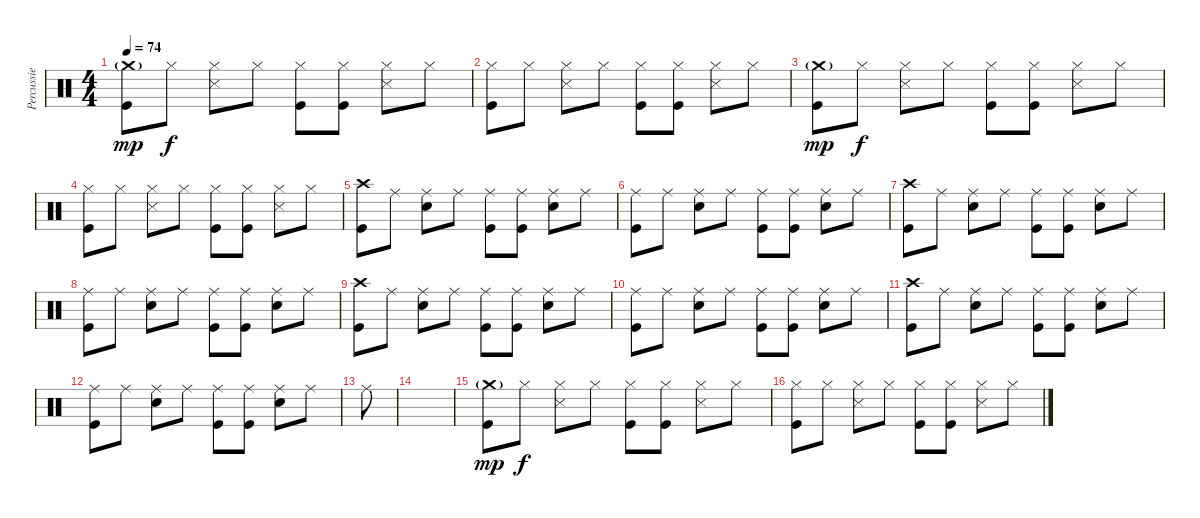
\track ("Percussie" "Percussie") {instrument percussion}
\staff {score}
\articulation defaults
\ts (4 4)
\tempo 74
\clef neutral
\ks c
("Crash medium (hit)"{g} "Kick (hit)").8{dy mp} "Hi-Hat (closed)".8{dy f} ("Hi-Hat (closed)" "Snare (side stick) 3").8 "Hi-Hat (closed)".8 ("Hi-Hat (closed)" "Kick (hit)").8 ("Hi-Hat (closed)" "Kick (hit)").8 ("Hi-Hat (closed)" "Snare (side stick) 3").8 "Hi-Hat (closed)".8 |
("Hi-Hat (closed)" "Kick (hit)").8 "Hi-Hat (closed)".8 ("Hi-Hat (closed)" "Snare (side stick) 3").8 "Hi-Hat (closed)".8 ("Hi-Hat (closed)" "Kick (hit)").8 ("Hi-Hat (closed)" "Kick (hit)").8 ("Hi-Hat (closed)" "Snare (side stick) 3").8 "Hi-Hat (closed)".8 |
("Crash medium (hit)"{g} "Kick (hit)").8{dy mp} "Hi-Hat (closed)".8{dy f} ("Hi-Hat (closed)" "Snare (side stick) 3").8 "Hi-Hat (closed)".8 ("Hi-Hat (closed)" "Kick (hit)").8 ("Hi-Hat (closed)" "Kick (hit)").8 ("Hi-Hat (closed)" "Snare (side stick) 3").8 "Hi-Hat (closed)".8 |
("Hi-Hat (closed)" "Kick (hit)").8 "Hi-Hat (closed)".8 ("Hi-Hat (closed)" "Snare (side stick) 3").8 "Hi-Hat (closed)".8 ("Hi-Hat (closed)" "Kick (hit)").8 ("Hi-Hat (closed)" "Kick (hit)").8 ("Hi-Hat (closed)" "Snare (side stick) 3").8 "Hi-Hat (closed)".8 |
("Crash high (hit)" "Kick (hit)").8 "Ride (middle)".8 ("Ride (middle)" "Snare (hit) 2").8 "Ride (middle)".8 ("Ride (middle)" "Kick (hit)").8 ("Ride (middle)" "Kick (hit)").8 ("Ride (middle)" "Snare (hit) 2").8 "Ride (middle)".8 |
("Ride (middle)" "Kick (hit)").8 "Ride (middle)".8 ("Ride (middle)" "Snare (hit) 2").8 "Ride (middle)".8 ("Ride (middle)" "Kick (hit)").8 ("Ride (middle)" "Kick (hit)").8 ("Ride (middle)" "Snare (hit) 2").8 "Ride (middle)".8 |
("Crash high (hit)" "Kick (hit)").8 "Ride (middle)".8 ("Ride (middle)" "Snare (hit) 2").8 "Ride (middle)".8 ("Ride (middle)" "Kick (hit)").8 ("Ride (middle)" "Kick (hit)").8 ("Ride (middle)" "Snare (hit) 2").8 "Ride (middle)".8 |
("Ride (middle)" "Kick (hit)").8 "Ride (middle)".8 ("Ride (middle)" "Snare (hit) 2").8 "Ride (middle)".8 ("Ride (middle)" "Kick (hit)").8 ("Ride (middle)" "Kick (hit)").8 ("Ride (middle)" "Snare (hit) 2").8 "Ride (middle)".8 |
("Crash high (hit)" "Kick (hit)").8 "Ride (middle)".8 ("Ride (middle)" "Snare (hit) 2").8 "Ride (middle)".8 ("Ride (middle)" "Kick (hit)").8 ("Ride (middle)" "Kick (hit)").8 ("Ride (middle)" "Snare (hit) 2").8 "Ride (middle)".8 |
("Ride (middle)" "Kick (hit)").8 "Ride (middle)".8 ("Ride (middle)" "Snare (hit) 2").8 "Ride (middle)".8 ("Ride (middle)" "Kick (hit)").8 ("Ride (middle)" "Kick (hit)").8 ("Ride (middle)" "Snare (hit) 2").8 "Ride (middle)".8 |
("Crash high (hit)" "Kick (hit)").8 "Ride (middle)".8 ("Ride (middle)" "Snare (hit) 2").8 "Ride (middle)".8 ("Ride (middle)" "Kick (hit)").8 ("Ride (middle)" "Kick (hit)").8 ("Ride (middle)" "Snare (hit) 2").8 "Ride (middle)".8 |
("Ride (middle)" "Kick (hit)").8 "Ride (middle)".8 ("Ride (middle)" "Snare (hit) 2").8 "Ride (middle)".8 ("Ride (middle)" "Kick (hit)").8 ("Ride (middle)" "Kick (hit)").8 ("Ride (middle)" "Snare (hit) 2").8 "Ride (middle)".8 |
"Ride (middle)".8 |
|
("Crash medium (hit)"{g} "Kick (hit)").8{dy mp} "Hi-Hat (closed)".8{dy f} ("Hi-Hat (closed)" "Snare (side stick) 3").8 "Hi-Hat (closed)".8 ("Hi-Hat (closed)" "Kick (hit)").8 ("Hi-Hat (closed)" "Kick (hit)").8 ("Hi-Hat (closed)" "Snare (side stick) 3").8 "Hi-Hat (closed)".8 |
("Hi-Hat (closed)" "Kick (hit)").8 "Hi-Hat (closed)".8 ("Hi-Hat (closed)" "Snare (side stick) 3").8 "Hi-Hat (closed)".8 ("Hi-Hat (closed)" "Kick (hit)").8 ("Hi-Hat (closed)" "Kick (hit)").8 ("Hi-Hat (closed)" "Snare (side stick) 3").8 "Hi-Hat (closed)".8
